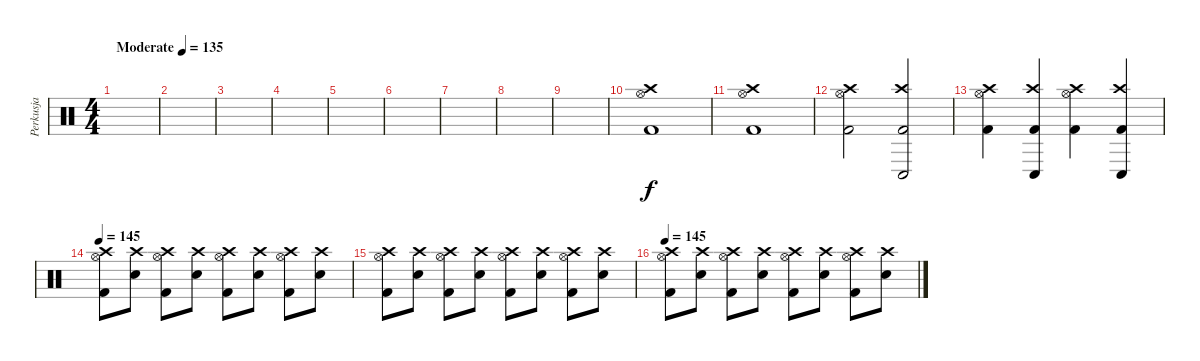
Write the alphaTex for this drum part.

\track ("Perkusja" "Perkusja") {instrument percussion}
\staff {score}
\articulation defaults
\ts (4 4)
\tempo (135 "Moderate")
\clef neutral
\ks c
|
|
|
|
|
|
|
|
|
("Crash high (hit)" "Hi-Hat (open)" "Kick (hit) 2").1 |
("Crash high (hit)" "Hi-Hat (open)" "Kick (hit) 2").1 |
("Crash high (hit)" "Hi-Hat (open)" "Kick (hit) 2").2 ("Crash high (hit)" "Conga low (hit)" "Kick (hit) 2").2 |
("Crash high (hit)" "Hi-Hat (open)" "Kick (hit) 2").4 ("Crash high (hit)" "Conga low (hit)" "Kick (hit) 2").4 ("Crash high (hit)" "Hi-Hat (open)" "Kick (hit) 2").4 ("Crash high (hit)" "Conga low (hit)" "Kick (hit) 2").4 |
\tempo 145
("Crash high (hit)" "Hi-Hat (open)" "Kick (hit) 2").8 ("Crash high (hit)" "Electric Snare (hit)").8 ("Crash high (hit)" "Hi-Hat (open)" "Kick (hit) 2").8 ("Crash high (hit)" "Electric Snare (hit)").8 ("Crash high (hit)" "Hi-Hat (open)" "Kick (hit) 2").8 ("Crash high (hit)" "Electric Snare (hit)").8 ("Crash high (hit)" "Hi-Hat (open)" "Kick (hit) 2").8 ("Crash high (hit)" "Electric Snare (hit)").8 |
("Crash high (hit)" "Hi-Hat (open)" "Kick (hit) 2").8 ("Crash high (hit)" "Electric Snare (hit)").8 ("Crash high (hit)" "Hi-Hat (open)" "Kick (hit) 2").8 ("Crash high (hit)" "Electric Snare (hit)").8 ("Crash high (hit)" "Hi-Hat (open)" "Kick (hit) 2").8 ("Crash high (hit)" "Electric Snare (hit)").8 ("Crash high (hit)" "Hi-Hat (open)" "Kick (hit) 2").8 ("Crash high (hit)" "Electric Snare (hit)").8 |
\tempo 145
("Crash high (hit)" "Hi-Hat (open)" "Kick (hit) 2").8 ("Crash high (hit)" "Electric Snare (hit)").8 ("Crash high (hit)" "Hi-Hat (open)" "Kick (hit) 2").8 ("Crash high (hit)" "Electric Snare (hit)").8 ("Crash high (hit)" "Hi-Hat (open)" "Kick (hit) 2").8 ("Crash high (hit)" "Electric Snare (hit)").8 ("Crash high (hit)" "Hi-Hat (open)" "Kick (hit) 2").8 ("Crash high (hit)" "Electric Snare (hit)").8
